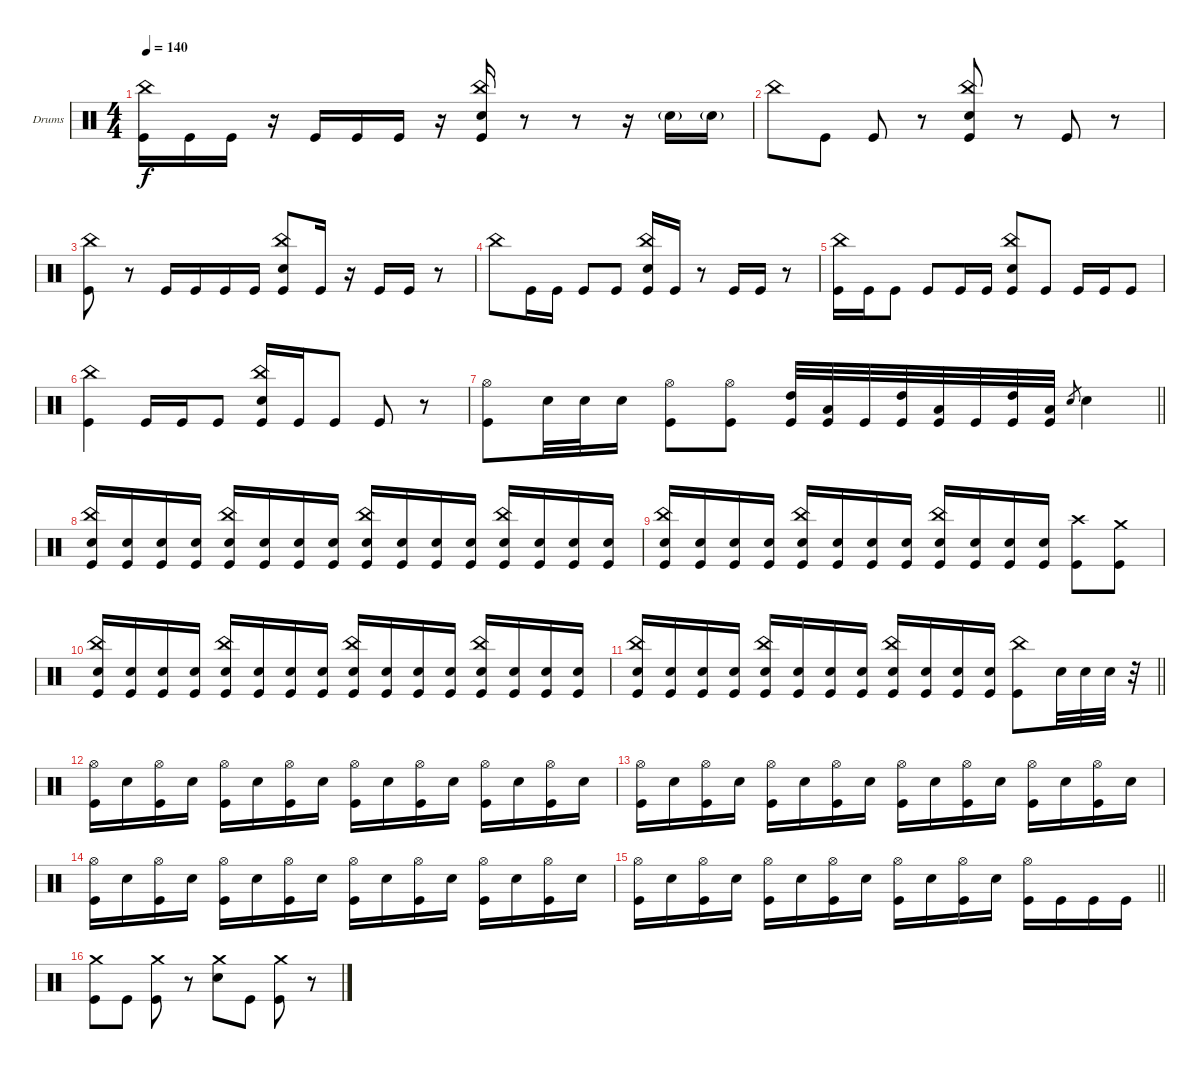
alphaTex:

\bracketExtendMode groupsimilarinstruments
\firstSystemTrackNameOrientation horizontal
\otherSystemsTrackNameOrientation horizontal
\track ("Drumkit" "Drums") {instrument percussion}
\staff {score}
\articulation defaults
\ts (4 4)
\tempo 140
\clef neutral
\ks c
("Kick (hit)" "China (hit)").16{dy f} "Kick (hit)".16 "Kick (hit)".16 r.16 "Kick (hit)".16 "Kick (hit)".16 "Kick (hit)".16 r.16 ("Kick (hit)" "China (hit)" "Snare (hit) 2").16 r.8 r.8 r.16 "Snare (hit) 2"{g}.16 "Snare (hit) 2"{g}.16 |
"China (hit)".8 "Kick (hit)".8 "Kick (hit)".8 r.8 ("Kick (hit)" "China (hit)" "Snare (hit) 2").8 r.8 "Kick (hit)".8 r.8 |
("Kick (hit)" "China (hit)").8 r.8 "Kick (hit)".16 "Kick (hit)".16 "Kick (hit)".16 "Kick (hit)".16 ("Kick (hit)" "China (hit)" "Snare (hit) 2").8 "Kick (hit)".16 r.16 "Kick (hit)".16 "Kick (hit)".16 r.8 |
"China (hit)".8 "Kick (hit)".16 "Kick (hit)".16 "Kick (hit)".8 "Kick (hit)".8 ("Kick (hit)" "China (hit)" "Snare (hit) 2").16 "Kick (hit)".16 r.8 "Kick (hit)".16 "Kick (hit)".16 r.8 |
("Kick (hit)" "China (hit)").16 "Kick (hit)".16 "Kick (hit)".8 "Kick (hit)".8 "Kick (hit)".16 "Kick (hit)".16 ("Kick (hit)" "China (hit)" "Snare (hit) 2").8 "Kick (hit)".8 "Kick (hit)".16 "Kick (hit)".16 "Kick (hit)".8 |
("China (hit)" "Kick (hit)").4 "Kick (hit)".16 "Kick (hit)".16 "Kick (hit)".8 ("Kick (hit)" "China (hit)" "Snare (hit) 2").16 "Kick (hit)".16 "Kick (hit)".8 "Kick (hit)".8 r.8 |
\barLineRight lightlight
("Hi-Hat (open)" "Kick (hit)").8 "Snare (hit) 2".32 "Snare (hit) 2".32 "Snare (hit) 2".16 ("Hi-Hat (open)" "Kick (hit)").8 ("Hi-Hat (open)" "Kick (hit)").8 ("High Tom (hit)" "Kick (hit)").32 ("Low Tom (hit)" "Kick (hit)").32 "Kick (hit)".32 ("Kick (hit)" "High Tom (hit)").32 ("Kick (hit)" "Low Tom (hit)").32 "Kick (hit)".32 ("Kick (hit)" "High Tom (hit)").32 ("Kick (hit)" "Low Tom (hit)").32 "Snare (hit) 2".8{gr} "Snare (hit) 2".4 |
\section ("" "")
("Snare (hit) 2" "Kick (hit)" "China (hit)").16 ("Snare (hit) 2" "Kick (hit)").16 ("Snare (hit) 2" "Kick (hit)").16 ("Snare (hit) 2" "Kick (hit)").16 ("Snare (hit) 2" "Kick (hit)" "China (hit)").16 ("Snare (hit) 2" "Kick (hit)").16 ("Snare (hit) 2" "Kick (hit)").16 ("Snare (hit) 2" "Kick (hit)").16 ("Snare (hit) 2" "Kick (hit)" "China (hit)").16 ("Snare (hit) 2" "Kick (hit)").16 ("Snare (hit) 2" "Kick (hit)").16 ("Snare (hit) 2" "Kick (hit)").16 ("Snare (hit) 2" "Kick (hit)" "China (hit)").16 ("Snare (hit) 2" "Kick (hit)").16 ("Snare (hit) 2" "Kick (hit)").16 ("Snare (hit) 2" "Kick (hit)").16 |
("Snare (hit) 2" "Kick (hit)" "China (hit)").16 ("Snare (hit) 2" "Kick (hit)").16 ("Snare (hit) 2" "Kick (hit)").16 ("Snare (hit) 2" "Kick (hit)").16 ("Snare (hit) 2" "Kick (hit)" "China (hit)").16 ("Snare (hit) 2" "Kick (hit)").16 ("Snare (hit) 2" "Kick (hit)").16 ("Snare (hit) 2" "Kick (hit)").16 ("Snare (hit) 2" "Kick (hit)" "China (hit)").16 ("Snare (hit) 2" "Kick (hit)").16 ("Snare (hit) 2" "Kick (hit)").16 ("Snare (hit) 2" "Kick (hit)").16 ("Kick (hit)" "Crash high (hit)").8 ("Kick (hit)" "Crash medium (hit)").8 |
("Snare (hit) 2" "Kick (hit)" "China (hit)").16 ("Snare (hit) 2" "Kick (hit)").16 ("Snare (hit) 2" "Kick (hit)").16 ("Snare (hit) 2" "Kick (hit)").16 ("Snare (hit) 2" "Kick (hit)" "China (hit)").16 ("Snare (hit) 2" "Kick (hit)").16 ("Snare (hit) 2" "Kick (hit)").16 ("Snare (hit) 2" "Kick (hit)").16 ("Snare (hit) 2" "Kick (hit)" "China (hit)").16 ("Snare (hit) 2" "Kick (hit)").16 ("Snare (hit) 2" "Kick (hit)").16 ("Snare (hit) 2" "Kick (hit)").16 ("Snare (hit) 2" "Kick (hit)" "China (hit)").16 ("Snare (hit) 2" "Kick (hit)").16 ("Snare (hit) 2" "Kick (hit)").16 ("Snare (hit) 2" "Kick (hit)").16 |
\barLineRight lightlight
("Snare (hit) 2" "Kick (hit)" "China (hit)").16 ("Snare (hit) 2" "Kick (hit)").16 ("Snare (hit) 2" "Kick (hit)").16 ("Snare (hit) 2" "Kick (hit)").16 ("Snare (hit) 2" "Kick (hit)" "China (hit)").16 ("Snare (hit) 2" "Kick (hit)").16 ("Snare (hit) 2" "Kick (hit)").16 ("Snare (hit) 2" "Kick (hit)").16 ("Snare (hit) 2" "Kick (hit)" "China (hit)").16 ("Snare (hit) 2" "Kick (hit)").16 ("Snare (hit) 2" "Kick (hit)").16 ("Snare (hit) 2" "Kick (hit)").16 ("Kick (hit)" "China (hit)").8 "Snare (hit) 2".32 "Snare (hit) 2".32 "Snare (hit) 2".32 r.32 |
\section ("" "")
("Hi-Hat (open)" "Kick (hit)").16 "Snare (hit) 2".16 ("Hi-Hat (open)" "Kick (hit)").16 "Snare (hit) 2".16 ("Hi-Hat (open)" "Kick (hit)").16 "Snare (hit) 2".16 ("Hi-Hat (open)" "Kick (hit)").16 "Snare (hit) 2".16 ("Hi-Hat (open)" "Kick (hit)").16 "Snare (hit) 2".16 ("Hi-Hat (open)" "Kick (hit)").16 "Snare (hit) 2".16 ("Hi-Hat (open)" "Kick (hit)").16 "Snare (hit) 2".16 ("Hi-Hat (open)" "Kick (hit)").16 "Snare (hit) 2".16 |
("Hi-Hat (open)" "Kick (hit)").16 "Snare (hit) 2".16 ("Hi-Hat (open)" "Kick (hit)").16 "Snare (hit) 2".16 ("Hi-Hat (open)" "Kick (hit)").16 "Snare (hit) 2".16 ("Hi-Hat (open)" "Kick (hit)").16 "Snare (hit) 2".16 ("Hi-Hat (open)" "Kick (hit)").16 "Snare (hit) 2".16 ("Hi-Hat (open)" "Kick (hit)").16 "Snare (hit) 2".16 ("Hi-Hat (open)" "Kick (hit)").16 "Snare (hit) 2".16 ("Hi-Hat (open)" "Kick (hit)").16 "Snare (hit) 2".16 |
("Hi-Hat (open)" "Kick (hit)").16 "Snare (hit) 2".16 ("Hi-Hat (open)" "Kick (hit)").16 "Snare (hit) 2".16 ("Hi-Hat (open)" "Kick (hit)").16 "Snare (hit) 2".16 ("Hi-Hat (open)" "Kick (hit)").16 "Snare (hit) 2".16 ("Hi-Hat (open)" "Kick (hit)").16 "Snare (hit) 2".16 ("Hi-Hat (open)" "Kick (hit)").16 "Snare (hit) 2".16 ("Hi-Hat (open)" "Kick (hit)").16 "Snare (hit) 2".16 ("Hi-Hat (open)" "Kick (hit)").16 "Snare (hit) 2".16 |
\barLineRight lightlight
("Hi-Hat (open)" "Kick (hit)").16 "Snare (hit) 2".16 ("Hi-Hat (open)" "Kick (hit)").16 "Snare (hit) 2".16 ("Hi-Hat (open)" "Kick (hit)").16 "Snare (hit) 2".16 ("Hi-Hat (open)" "Kick (hit)").16 "Snare (hit) 2".16 ("Hi-Hat (open)" "Kick (hit)").16 "Snare (hit) 2".16 ("Hi-Hat (open)" "Kick (hit)").16 "Snare (hit) 2".16 ("Kick (hit)" "Hi-Hat (open)").16 "Kick (hit)".16 "Kick (hit)".16 "Kick (hit)".16 |
\section ("" "")
("Kick (hit)" "Crash medium (hit)").8 "Kick (hit)".8 ("Kick (hit)" "Crash medium (hit)").8 r.8 ("Crash medium (hit)" "Snare (hit) 2").8 "Kick (hit)".8 ("Kick (hit)" "Crash medium (hit)").8 r.8
